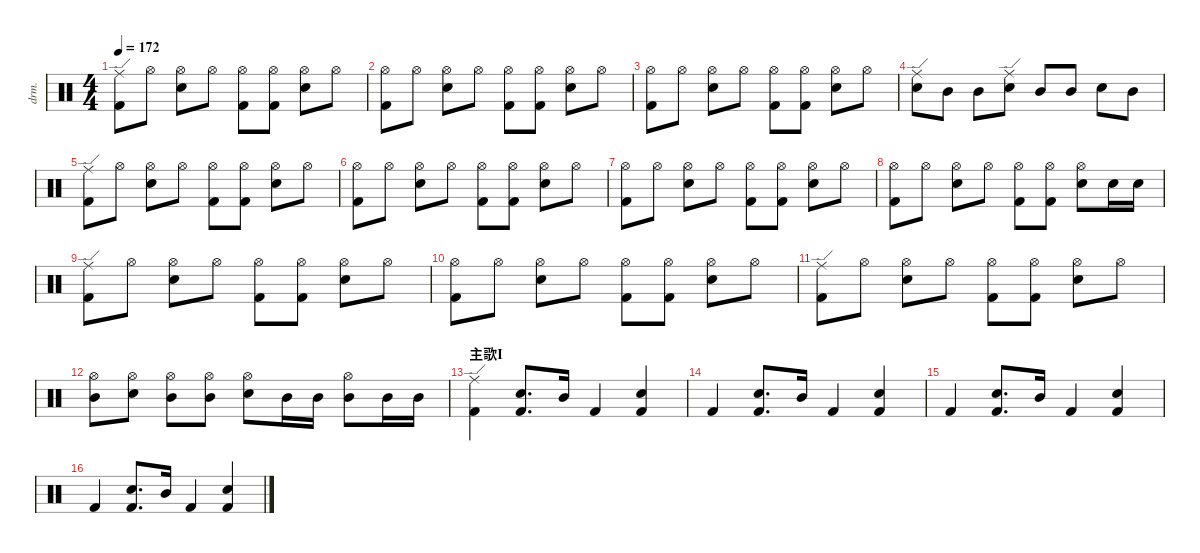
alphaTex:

\defaultSystemsLayout 4
\hideDynamics
\bracketExtendMode nobrackets
\track ("Drums" "drm.") {solo instrument percussion}
\staff {score}
\articulation defaults
\ts (4 4)
\tempo 172
\clef neutral
\ks c
("Kick (hit) 2" "Ride (edge)").8{dy ff beam Down} "Hi-Hat (open)".8{dy mf beam Down} ("Snare (hit) 2" "Hi-Hat (open)").8{beam Down} "Hi-Hat (open)".8{beam Down} ("Kick (hit) 2" "Hi-Hat (open)").8{beam Down} ("Kick (hit) 2" "Hi-Hat (open)").8{beam Down} ("Snare (hit) 2" "Hi-Hat (open)").8{beam Down} "Hi-Hat (open)".8{beam Down} |
("Kick (hit) 2" "Hi-Hat (open)").8{beam Down} "Hi-Hat (open)".8{beam Down} ("Snare (hit) 2" "Hi-Hat (open)").8{beam Down} "Hi-Hat (open)".8{beam Down} ("Kick (hit) 2" "Hi-Hat (open)").8{beam Down} ("Kick (hit) 2" "Hi-Hat (open)").8{beam Down} ("Snare (hit) 2" "Hi-Hat (open)").8{beam Down} "Hi-Hat (open)".8{beam Down} |
("Kick (hit) 2" "Hi-Hat (open)").8{beam Down} "Hi-Hat (open)".8{beam Down} ("Snare (hit) 2" "Hi-Hat (open)").8{beam Down} "Hi-Hat (open)".8{beam Down} ("Kick (hit) 2" "Hi-Hat (open)").8{beam Down} ("Kick (hit) 2" "Hi-Hat (open)").8{beam Down} ("Snare (hit) 2" "Hi-Hat (open)").8{beam Down} "Hi-Hat (open)".8{beam Down} |
("Snare (hit) 2" "Ride (edge)").8{dy ff beam Down} "Mid Tom (hit)".8{dy mf beam Down} "Mid Tom (hit)".8{beam Down} ("Snare (hit) 2" "Ride (edge)").8{dy ff beam Down} "Mid Tom (hit)".8{dy mf beam Up} "Mid Tom (hit)".8{beam Up} "Snare (hit) 2".8{beam Down} "Mid Tom (hit)".8{beam Down} |
("Kick (hit) 2" "Ride (edge)").8{dy ff beam Down} "Hi-Hat (open)".8{dy mf beam Down} ("Snare (hit) 2" "Hi-Hat (open)").8{beam Down} "Hi-Hat (open)".8{beam Down} ("Kick (hit) 2" "Hi-Hat (open)").8{beam Down} ("Kick (hit) 2" "Hi-Hat (open)").8{beam Down} ("Snare (hit) 2" "Hi-Hat (open)").8{beam Down} "Hi-Hat (open)".8{beam Down} |
("Kick (hit) 2" "Hi-Hat (open)").8{beam Down} "Hi-Hat (open)".8{beam Down} ("Snare (hit) 2" "Hi-Hat (open)").8{beam Down} "Hi-Hat (open)".8{beam Down} ("Kick (hit) 2" "Hi-Hat (open)").8{beam Down} ("Kick (hit) 2" "Hi-Hat (open)").8{beam Down} ("Snare (hit) 2" "Hi-Hat (open)").8{beam Down} "Hi-Hat (open)".8{beam Down} |
("Kick (hit) 2" "Hi-Hat (open)").8{beam Down} "Hi-Hat (open)".8{beam Down} ("Snare (hit) 2" "Hi-Hat (open)").8{beam Down} "Hi-Hat (open)".8{beam Down} ("Kick (hit) 2" "Hi-Hat (open)").8{beam Down} ("Kick (hit) 2" "Hi-Hat (open)").8{beam Down} ("Snare (hit) 2" "Hi-Hat (open)").8{beam Down} "Hi-Hat (open)".8{beam Down} |
("Kick (hit) 2" "Hi-Hat (open)").8{beam Down} "Hi-Hat (open)".8{beam Down} ("Snare (hit) 2" "Hi-Hat (open)").8{beam Down} "Hi-Hat (open)".8{beam Down} ("Kick (hit) 2" "Hi-Hat (open)").8{beam Down} ("Kick (hit) 2" "Hi-Hat (open)").8{beam Down} ("Snare (hit) 2" "Hi-Hat (open)").8{beam Down} "Snare (hit) 2".16{beam Down} "Snare (hit) 2".16{beam Down} |
("Kick (hit) 2" "Ride (edge)").8{dy ff beam Down} "Hi-Hat (open)".8{dy mf beam Down} ("Snare (hit) 2" "Hi-Hat (open)").8{beam Down} "Hi-Hat (open)".8{beam Down} ("Kick (hit) 2" "Hi-Hat (open)").8{beam Down} ("Kick (hit) 2" "Hi-Hat (open)").8{beam Down} ("Snare (hit) 2" "Hi-Hat (open)").8{beam Down} "Hi-Hat (open)".8{beam Down} |
("Kick (hit) 2" "Hi-Hat (open)").8{beam Down} "Hi-Hat (open)".8{beam Down} ("Snare (hit) 2" "Hi-Hat (open)").8{beam Down} "Hi-Hat (open)".8{beam Down} ("Kick (hit) 2" "Hi-Hat (open)").8{beam Down} ("Kick (hit) 2" "Hi-Hat (open)").8{beam Down} ("Snare (hit) 2" "Hi-Hat (open)").8{beam Down} "Hi-Hat (open)".8{beam Down} |
("Kick (hit) 2" "Ride (edge)").8{dy ff beam Down} "Hi-Hat (open)".8{dy mf beam Down} ("Snare (hit) 2" "Hi-Hat (open)").8{beam Down} "Hi-Hat (open)".8{beam Down} ("Kick (hit) 2" "Hi-Hat (open)").8{beam Down} ("Kick (hit) 2" "Hi-Hat (open)").8{beam Down} ("Snare (hit) 2" "Hi-Hat (open)").8{beam Down} "Hi-Hat (open)".8{beam Down} |
("Hi-Hat (open)" "Mid Tom (hit)").8{beam Down} ("Hi-Hat (open)" "Snare (hit) 2").8{beam Down} ("Hi-Hat (open)" "Mid Tom (hit)").8{beam Down} ("Hi-Hat (open)" "Mid Tom (hit)").8{beam Down} ("Hi-Hat (open)" "Snare (hit) 2").8{beam Down} "Mid Tom (hit)".16{dy ff beam Down} "Mid Tom (hit)".16{beam Down} ("Hi-Hat (open)" "Mid Tom (hit)").8{dy mf beam Down} "Mid Tom (hit)".16{dy ff beam Down} "Mid Tom (hit)".16{beam Down} |
\section ("" "主歌I")
("Ride (edge)" "Kick (hit) 2").4{dy mf beam Down} ("Snare (hit) 2" "Kick (hit) 2").8{d beam Up} "Mid Tom (hit)".16{dy ff beam Up} "Kick (hit) 2".4{dy mf beam Up} ("Snare (hit) 2" "Kick (hit) 2").4{beam Up} |
"Kick (hit) 2".4{beam Up} ("Snare (hit) 2" "Kick (hit) 2").8{d beam Up} "Mid Tom (hit)".16{dy ff beam Up} "Kick (hit) 2".4{dy mf beam Up} ("Snare (hit) 2" "Kick (hit) 2").4{beam Up} |
"Kick (hit) 2".4{beam Up} ("Snare (hit) 2" "Kick (hit) 2").8{d beam Up} "Mid Tom (hit)".16{dy ff beam Up} "Kick (hit) 2".4{dy mf beam Up} ("Snare (hit) 2" "Kick (hit) 2").4{beam Up} |
"Kick (hit) 2".4{beam Up} ("Snare (hit) 2" "Kick (hit) 2").8{d beam Up} "Mid Tom (hit)".16{dy ff beam Up} "Kick (hit) 2".4{dy mf beam Up} ("Snare (hit) 2" "Kick (hit) 2").4{beam Up}
